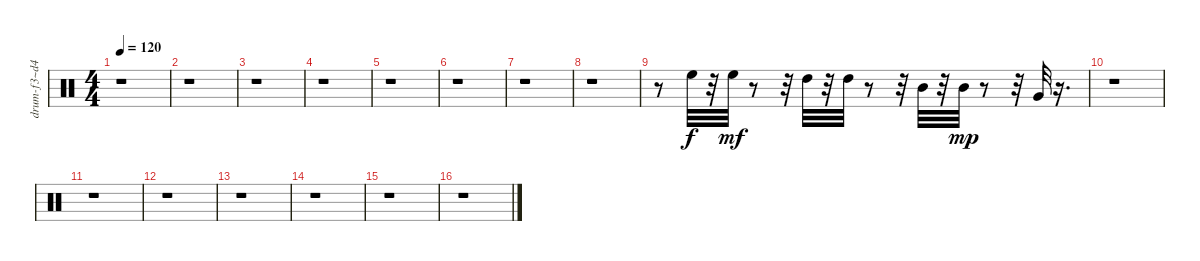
\track ("drum-f3~d4" "drum-f3~d4") {instrument percussion}
\staff {score}
\articulation defaults
\ts (4 4)
\tempo 120
\clef neutral
\ks c
r.1{dy p} |
r.1 |
r.1 |
r.1 |
r.1 |
r.1 |
r.1 |
r.1 |
r.8 "High Floor Tom (hit)".32{dy f} r.32 "High Floor Tom (hit)".32{dy mf} r.8 r.32 "High Tom (hit)".32 r.32 "High Tom (hit)".32 r.8 r.32 "Mid Tom (hit)".32 r.32 "Mid Tom (hit)".32{dy mp} r.8 r.32 "Very Low Tom (hit)".32 r.16{d} |
r.1 |
r.1 |
r.1 |
r.1 |
r.1 |
r.1 |
r.1
